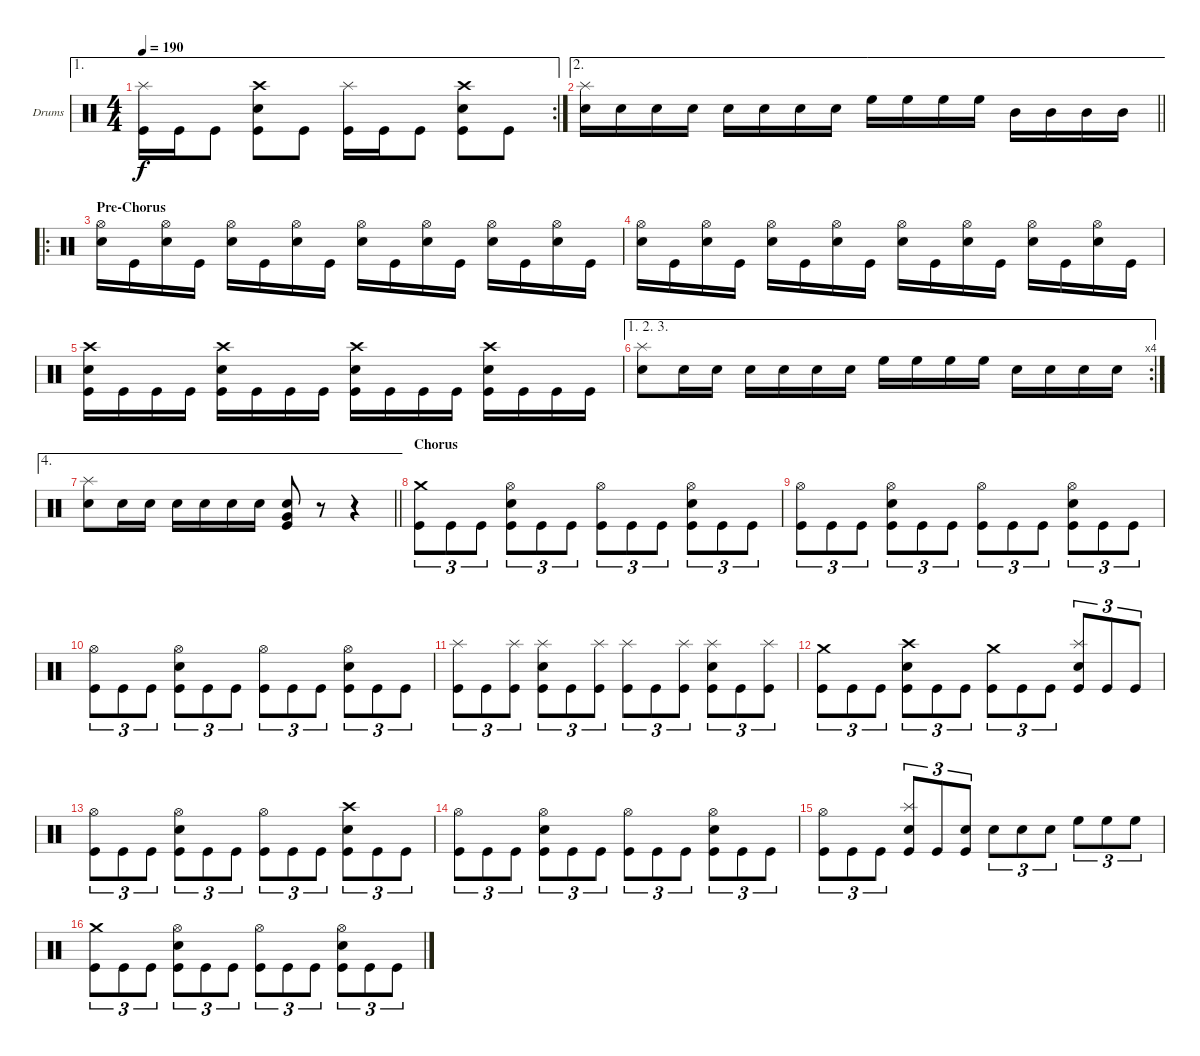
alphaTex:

\bracketExtendMode groupsimilarinstruments
\firstSystemTrackNameOrientation horizontal
\otherSystemsTrackNameOrientation horizontal
\track ("Drumkit" "Drums") {instrument percussion}
\staff {score}
\articulation defaults
\ae 1
\rc 2
\ts (4 4)
\tempo 190
\clef neutral
\ks c
("Kick (hit)" "Splash (hit)").16{dy f} "Kick (hit)".16 "Kick (hit)".8 ("Kick (hit)" "Snare (hit) 2" "Crash high (hit)").8 "Kick (hit)".8 ("Kick (hit)" "Splash (hit)").16 "Kick (hit)".16 "Kick (hit)".8 ("Kick (hit)" "Snare (hit) 2" "Crash high (hit)").8 "Kick (hit)".8 |
\ae 2
\barLineRight lightlight
("Snare (hit) 2" "Splash (hit)").16 "Snare (hit) 2".16 "Snare (hit) 2".16 "Snare (hit) 2".16 "Snare (hit) 2".16 "Snare (hit) 2".16 "Snare (hit) 2".16 "Snare (hit) 2".16 "High Floor Tom (hit)".16 "High Floor Tom (hit)".16 "High Floor Tom (hit)".16 "High Floor Tom (hit)".16 "Mid Tom (hit)".16 "Mid Tom (hit)".16 "Mid Tom (hit)".16 "Mid Tom (hit)".16 |
\ro
\section ("" "Pre-Chorus")
("Snare (hit) 2" "Hi-Hat (open)").16 "Kick (hit)".16 ("Snare (hit) 2" "Hi-Hat (open)").16 "Kick (hit)".16 ("Snare (hit) 2" "Hi-Hat (open)").16 "Kick (hit)".16 ("Snare (hit) 2" "Hi-Hat (open)").16 "Kick (hit)".16 ("Snare (hit) 2" "Hi-Hat (open)").16 "Kick (hit)".16 ("Snare (hit) 2" "Hi-Hat (open)").16 "Kick (hit)".16 ("Snare (hit) 2" "Hi-Hat (open)").16 "Kick (hit)".16 ("Snare (hit) 2" "Hi-Hat (open)").16 "Kick (hit)".16 |
("Snare (hit) 2" "Hi-Hat (open)").16 "Kick (hit)".16 ("Snare (hit) 2" "Hi-Hat (open)").16 "Kick (hit)".16 ("Snare (hit) 2" "Hi-Hat (open)").16 "Kick (hit)".16 ("Snare (hit) 2" "Hi-Hat (open)").16 "Kick (hit)".16 ("Snare (hit) 2" "Hi-Hat (open)").16 "Kick (hit)".16 ("Snare (hit) 2" "Hi-Hat (open)").16 "Kick (hit)".16 ("Snare (hit) 2" "Hi-Hat (open)").16 "Kick (hit)".16 ("Snare (hit) 2" "Hi-Hat (open)").16 "Kick (hit)".16 |
("Kick (hit)" "Snare (hit) 2" "Crash high (hit)").16 "Kick (hit)".16 "Kick (hit)".16 "Kick (hit)".16 ("Kick (hit)" "Snare (hit) 2" "Crash high (hit)").16 "Kick (hit)".16 "Kick (hit)".16 "Kick (hit)".16 ("Kick (hit)" "Snare (hit) 2" "Crash high (hit)").16 "Kick (hit)".16 "Kick (hit)".16 "Kick (hit)".16 ("Kick (hit)" "Snare (hit) 2" "Crash high (hit)").16 "Kick (hit)".16 "Kick (hit)".16 "Kick (hit)".16 |
\ae (1 2 3)
\rc 4
("Snare (hit) 2" "Splash (hit)").8 "Snare (hit) 2".16 "Snare (hit) 2".16 "Snare (hit) 2".16 "Snare (hit) 2".16 "Snare (hit) 2".16 "Snare (hit) 2".16 "High Floor Tom (hit)".16 "High Floor Tom (hit)".16 "High Floor Tom (hit)".16 "High Floor Tom (hit)".16 "Snare (hit) 2".16 "Snare (hit) 2".16 "Snare (hit) 2".16 "Snare (hit) 2".16 |
\ae 4
\barLineRight lightlight
("Snare (hit) 2" "Splash (hit)").8 "Snare (hit) 2".16 "Snare (hit) 2".16 "Snare (hit) 2".16 "Snare (hit) 2".16 "Snare (hit) 2".16 "Snare (hit) 2".16 ("Kick (hit)" "Snare (hit) 2" "Very Low Tom (hit)").8 r.8 r.4 |
\section ("" "Chorus")
("Kick (hit)" "Crash medium (hit)").8{tu (3 2)} "Kick (hit)".8{tu (3 2)} "Kick (hit)".8{tu (3 2)} ("Kick (hit)" "Snare (hit) 2" "Hi-Hat (open)").8{tu (3 2)} "Kick (hit)".8{tu (3 2)} "Kick (hit)".8{tu (3 2)} ("Kick (hit)" "Hi-Hat (open)").8{tu (3 2)} "Kick (hit)".8{tu (3 2)} "Kick (hit)".8{tu (3 2)} ("Kick (hit)" "Snare (hit) 2" "Hi-Hat (open)").8{tu (3 2)} "Kick (hit)".8{tu (3 2)} "Kick (hit)".8{tu (3 2)} |
("Kick (hit)" "Hi-Hat (open)").8{tu (3 2)} "Kick (hit)".8{tu (3 2)} "Kick (hit)".8{tu (3 2)} ("Kick (hit)" "Snare (hit) 2" "Hi-Hat (open)").8{tu (3 2)} "Kick (hit)".8{tu (3 2)} "Kick (hit)".8{tu (3 2)} ("Kick (hit)" "Hi-Hat (open)").8{tu (3 2)} "Kick (hit)".8{tu (3 2)} "Kick (hit)".8{tu (3 2)} ("Kick (hit)" "Snare (hit) 2" "Hi-Hat (open)").8{tu (3 2)} "Kick (hit)".8{tu (3 2)} "Kick (hit)".8{tu (3 2)} |
("Kick (hit)" "Hi-Hat (open)").8{tu (3 2)} "Kick (hit)".8{tu (3 2)} "Kick (hit)".8{tu (3 2)} ("Kick (hit)" "Snare (hit) 2" "Hi-Hat (open)").8{tu (3 2)} "Kick (hit)".8{tu (3 2)} "Kick (hit)".8{tu (3 2)} ("Kick (hit)" "Hi-Hat (open)").8{tu (3 2)} "Kick (hit)".8{tu (3 2)} "Kick (hit)".8{tu (3 2)} ("Kick (hit)" "Snare (hit) 2" "Hi-Hat (open)").8{tu (3 2)} "Kick (hit)".8{tu (3 2)} "Kick (hit)".8{tu (3 2)} |
("Kick (hit)" "Splash (hit)").8{tu (3 2)} "Kick (hit)".8{tu (3 2)} ("Kick (hit)" "Splash (hit)").8{tu (3 2)} ("Kick (hit)" "Snare (hit) 2" "Splash (hit)").8{tu (3 2)} "Kick (hit)".8{tu (3 2)} ("Kick (hit)" "Splash (hit)").8{tu (3 2)} ("Kick (hit)" "Splash (hit)").8{tu (3 2)} "Kick (hit)".8{tu (3 2)} ("Kick (hit)" "Splash (hit)").8{tu (3 2)} ("Kick (hit)" "Snare (hit) 2" "Splash (hit)").8{tu (3 2)} "Kick (hit)".8{tu (3 2)} ("Kick (hit)" "Splash (hit)").8{tu (3 2)} |
("Kick (hit)" "Crash medium (hit)").8{tu (3 2)} "Kick (hit)".8{tu (3 2)} "Kick (hit)".8{tu (3 2)} ("Kick (hit)" "Snare (hit) 2" "Crash high (hit)").8{tu (3 2)} "Kick (hit)".8{tu (3 2)} "Kick (hit)".8{tu (3 2)} ("Kick (hit)" "Crash medium (hit)").8{tu (3 2)} "Kick (hit)".8{tu (3 2)} "Kick (hit)".8{tu (3 2)} ("Kick (hit)" "Snare (hit) 2" "Splash (hit)").8{tu (3 2)} "Kick (hit)".8{tu (3 2)} "Kick (hit)".8{tu (3 2)} |
("Kick (hit)" "Hi-Hat (open)").8{tu (3 2)} "Kick (hit)".8{tu (3 2)} "Kick (hit)".8{tu (3 2)} ("Kick (hit)" "Snare (hit) 2" "Hi-Hat (open)").8{tu (3 2)} "Kick (hit)".8{tu (3 2)} "Kick (hit)".8{tu (3 2)} ("Kick (hit)" "Hi-Hat (open)").8{tu (3 2)} "Kick (hit)".8{tu (3 2)} "Kick (hit)".8{tu (3 2)} ("Kick (hit)" "Snare (hit) 2" "Crash high (hit)").8{tu (3 2)} "Kick (hit)".8{tu (3 2)} "Kick (hit)".8{tu (3 2)} |
("Kick (hit)" "Hi-Hat (open)").8{tu (3 2)} "Kick (hit)".8{tu (3 2)} "Kick (hit)".8{tu (3 2)} ("Kick (hit)" "Snare (hit) 2" "Hi-Hat (open)").8{tu (3 2)} "Kick (hit)".8{tu (3 2)} "Kick (hit)".8{tu (3 2)} ("Kick (hit)" "Hi-Hat (open)").8{tu (3 2)} "Kick (hit)".8{tu (3 2)} "Kick (hit)".8{tu (3 2)} ("Kick (hit)" "Snare (hit) 2" "Hi-Hat (open)").8{tu (3 2)} "Kick (hit)".8{tu (3 2)} "Kick (hit)".8{tu (3 2)} |
("Kick (hit)" "Hi-Hat (open)").8{tu (3 2)} "Kick (hit)".8{tu (3 2)} "Kick (hit)".8{tu (3 2)} ("Kick (hit)" "Snare (hit) 2" "Splash (hit)").8{tu (3 2)} "Kick (hit)".8{tu (3 2)} ("Kick (hit)" "Snare (hit) 2").8{tu (3 2)} "Snare (hit) 2".8{tu (3 2)} "Snare (hit) 2".8{tu (3 2)} "Snare (hit) 2".8{tu (3 2)} "High Floor Tom (hit)".8{tu (3 2)} "High Floor Tom (hit)".8{tu (3 2)} "High Floor Tom (hit)".8{tu (3 2)} |
("Kick (hit)" "Crash medium (hit)").8{tu (3 2)} "Kick (hit)".8{tu (3 2)} "Kick (hit)".8{tu (3 2)} ("Kick (hit)" "Snare (hit) 2" "Hi-Hat (open)").8{tu (3 2)} "Kick (hit)".8{tu (3 2)} "Kick (hit)".8{tu (3 2)} ("Kick (hit)" "Hi-Hat (open)").8{tu (3 2)} "Kick (hit)".8{tu (3 2)} "Kick (hit)".8{tu (3 2)} ("Kick (hit)" "Snare (hit) 2" "Hi-Hat (open)").8{tu (3 2)} "Kick (hit)".8{tu (3 2)} "Kick (hit)".8{tu (3 2)}
